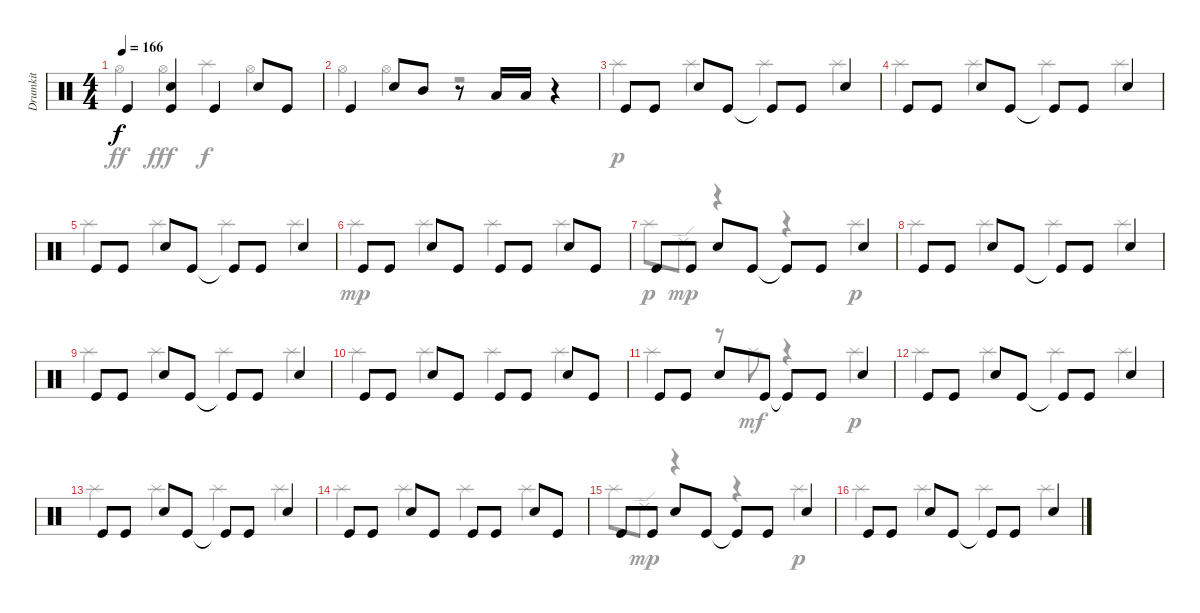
\track ("Drumkit" "Drumkit") {instrument percussion}
\staff {score}
\articulation defaults
\voice
\ts (4 4)
\tempo 166
\clef neutral
\ks c "Kick (hit)".4{dy f}
("Kick (hit)" "Snare (hit) 2").4 "Kick (hit)".4 "Snare (hit) 2".8 "Kick (hit)".8 |
"Kick (hit)".4 "Snare (hit) 2".8 "Mid Tom (hit)".8 r.8 "Low Tom (hit)".16 "Low Tom (hit)".16 r.4 |
"Kick (hit)".8 "Kick (hit)".8 "Snare (hit) 2".8 "Kick (hit)".8 "Kick (hit)"{t}.8 "Kick (hit)".8 "Snare (hit) 2".4 |
"Kick (hit)".8 "Kick (hit)".8 "Snare (hit) 2".8 "Kick (hit)".8 "Kick (hit)"{t}.8 "Kick (hit)".8 "Snare (hit) 2".4 |
"Kick (hit)".8 "Kick (hit)".8 "Snare (hit) 2".8 "Kick (hit)".8 "Kick (hit)"{t}.8 "Kick (hit)".8 "Snare (hit) 2".4 |
"Kick (hit)".8 "Kick (hit)".8 "Snare (hit) 2".8 "Kick (hit)".8 "Kick (hit)".8 "Kick (hit)".8 "Snare (hit) 2".8 "Kick (hit)".8 |
"Kick (hit)".8 "Kick (hit)".8 "Snare (hit) 2".8 "Kick (hit)".8 "Kick (hit)"{t}.8 "Kick (hit)".8 "Snare (hit) 2".4 |
"Kick (hit)".8 "Kick (hit)".8 "Snare (hit) 2".8 "Kick (hit)".8 "Kick (hit)"{t}.8 "Kick (hit)".8 "Snare (hit) 2".4 |
"Kick (hit)".8 "Kick (hit)".8 "Snare (hit) 2".8 "Kick (hit)".8 "Kick (hit)"{t}.8 "Kick (hit)".8 "Snare (hit) 2".4 |
"Kick (hit)".8 "Kick (hit)".8 "Snare (hit) 2".8 "Kick (hit)".8 "Kick (hit)".8 "Kick (hit)".8 "Snare (hit) 2".8 "Kick (hit)".8 |
"Kick (hit)".8 "Kick (hit)".8 "Snare (hit) 2".8 "Kick (hit)".8 "Kick (hit)"{t}.8 "Kick (hit)".8 "Snare (hit) 2".4 |
"Kick (hit)".8 "Kick (hit)".8 "Snare (hit) 2".8 "Kick (hit)".8 "Kick (hit)"{t}.8 "Kick (hit)".8 "Snare (hit) 2".4 |
"Kick (hit)".8 "Kick (hit)".8 "Snare (hit) 2".8 "Kick (hit)".8 "Kick (hit)"{t}.8 "Kick (hit)".8 "Snare (hit) 2".4 |
"Kick (hit)".8 "Kick (hit)".8 "Snare (hit) 2".8 "Kick (hit)".8 "Kick (hit)".8 "Kick (hit)".8 "Snare (hit) 2".8 "Kick (hit)".8 |
"Kick (hit)".8 "Kick (hit)".8 "Snare (hit) 2".8 "Kick (hit)".8 "Kick (hit)"{t}.8 "Kick (hit)".8 "Snare (hit) 2".4 |
"Kick (hit)".8 "Kick (hit)".8 "Snare (hit) 2".8 "Kick (hit)".8 "Kick (hit)"{t}.8 "Kick (hit)".8 "Snare (hit) 2".4
\voice
\clef neutral
\ottava regular
\simile none
\ks c "Hi-Hat (open)".4{dy ff} "Hi-Hat (open)".4{dy fff} "Splash (hit)".4{dy f} "Hi-Hat (open)".4
|
"Hi-Hat (open)".4 "Hi-Hat (open)".4 r.2 |
"Splash (hit)".4{dy p} "Splash (hit)".4 "Splash (hit)".4 "Splash (hit)".4 |
"Splash (hit)".4 "Splash (hit)".4 "Splash (hit)".4 "Splash (hit)".4 |
"Splash (hit)".4 "Splash (hit)".4 "Splash (hit)".4 "Splash (hit)".4 |
"Splash (hit)".4{dy mp} "Splash (hit)".4 "Splash (hit)".4 "Splash (hit)".4 |
"Splash (hit)".8{dy p} "Ride (edge) 2".8{dy mp} r.4 r.4 "Splash (hit)".4{dy p} |
"Splash (hit)".4 "Splash (hit)".4 "Splash (hit)".4 "Splash (hit)".4 |
"Splash (hit)".4 "Splash (hit)".4 "Splash (hit)".4 "Splash (hit)".4 |
"Splash (hit)".4 "Splash (hit)".4 "Splash (hit)".4 "Splash (hit)".4 |
"Splash (hit)".4 r.8 "Splash (hit)".8{dy mf} r.4 "Splash (hit)".4{dy p} |
"Splash (hit)".4 "Splash (hit)".4 "Splash (hit)".4 "Splash (hit)".4 |
"Splash (hit)".4 "Splash (hit)".4 "Splash (hit)".4 "Splash (hit)".4 |
"Splash (hit)".4 "Splash (hit)".4 "Splash (hit)".4 "Splash (hit)".4 |
"Splash (hit)".8 "Ride (edge) 2".8{dy mp} r.4 r.4 "Splash (hit)".4{dy p} |
"Splash (hit)".4 "Splash (hit)".4 "Splash (hit)".4 "Splash (hit)".4
